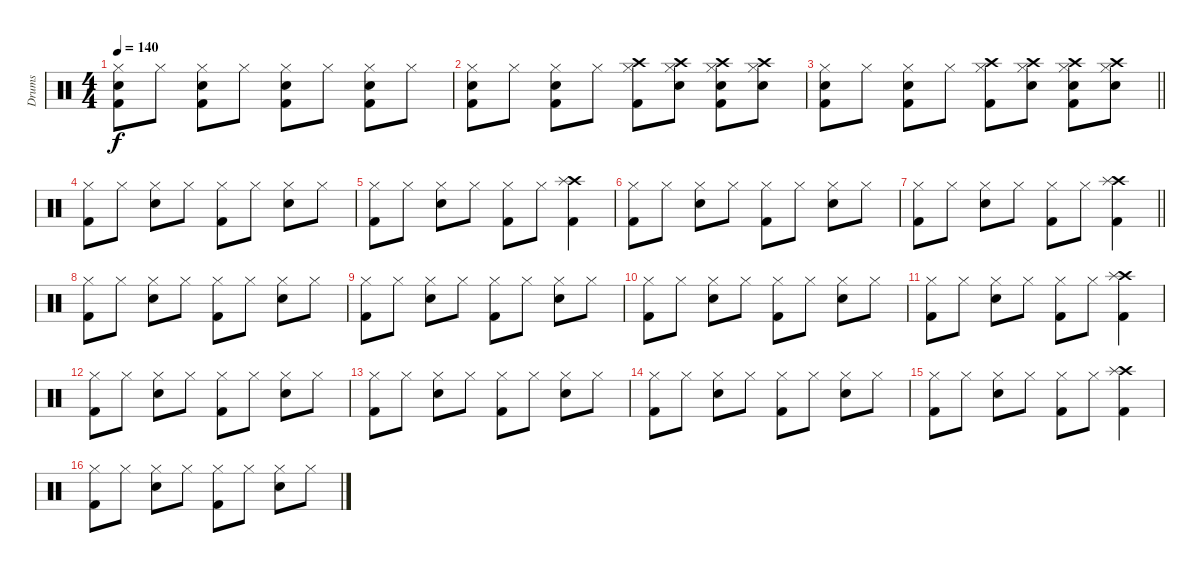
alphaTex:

\track ("Drums" "Drums") {instrument percussion}
\staff {score}
\articulation defaults
\ts (4 4)
\tempo 140
\clef neutral
\ks c
("Hi-Hat (closed)" "Electric Snare (hit)" "Kick (hit) 2").8{dy f} "Hi-Hat (closed)".8 ("Hi-Hat (closed)" "Electric Snare (hit)" "Kick (hit) 2").8 "Hi-Hat (closed)".8 ("Hi-Hat (closed)" "Electric Snare (hit)" "Kick (hit) 2").8 "Hi-Hat (closed)".8 ("Hi-Hat (closed)" "Electric Snare (hit)" "Kick (hit) 2").8 "Hi-Hat (closed)".8 |
("Hi-Hat (closed)" "Electric Snare (hit)" "Kick (hit) 2").8 "Hi-Hat (closed)".8 ("Hi-Hat (closed)" "Electric Snare (hit)" "Kick (hit) 2").8 "Hi-Hat (closed)".8 ("Hi-Hat (closed)" "Crash high (hit)" "Kick (hit) 2").8 ("Hi-Hat (closed)" "Crash high (hit)" "Electric Snare (hit)").8 ("Hi-Hat (closed)" "Crash high (hit)" "Electric Snare (hit)" "Kick (hit) 2").8 ("Hi-Hat (closed)" "Crash high (hit)" "Electric Snare (hit)").8 |
\barLineRight lightlight
("Hi-Hat (closed)" "Electric Snare (hit)" "Kick (hit) 2").8 "Hi-Hat (closed)".8 ("Hi-Hat (closed)" "Electric Snare (hit)" "Kick (hit) 2").8 "Hi-Hat (closed)".8 ("Hi-Hat (closed)" "Crash high (hit)" "Kick (hit) 2").8 ("Hi-Hat (closed)" "Crash high (hit)" "Electric Snare (hit)").8 ("Hi-Hat (closed)" "Crash high (hit)" "Electric Snare (hit)" "Kick (hit) 2").8 ("Hi-Hat (closed)" "Crash high (hit)" "Electric Snare (hit)").8 |
("Hi-Hat (closed)" "Kick (hit) 2").8 "Hi-Hat (closed)".8 ("Hi-Hat (closed)" "Snare (hit) 2").8 "Hi-Hat (closed)".8 ("Hi-Hat (closed)" "Kick (hit) 2").8 "Hi-Hat (closed)".8 ("Hi-Hat (closed)" "Snare (hit) 2").8 "Hi-Hat (closed)".8 |
("Hi-Hat (closed)" "Kick (hit) 2").8 "Hi-Hat (closed)".8 ("Hi-Hat (closed)" "Snare (hit) 2").8 "Hi-Hat (closed)".8 ("Hi-Hat (closed)" "Kick (hit) 2").8 "Hi-Hat (closed)".8 ("Crash high (hit)" "Splash (hit)" "Kick (hit) 2").4 |
("Hi-Hat (closed)" "Kick (hit) 2").8 "Hi-Hat (closed)".8 ("Hi-Hat (closed)" "Snare (hit) 2").8 "Hi-Hat (closed)".8 ("Hi-Hat (closed)" "Kick (hit) 2").8 "Hi-Hat (closed)".8 ("Hi-Hat (closed)" "Snare (hit) 2").8 "Hi-Hat (closed)".8 |
\barLineRight lightlight
("Hi-Hat (closed)" "Kick (hit) 2").8 "Hi-Hat (closed)".8 ("Hi-Hat (closed)" "Snare (hit) 2").8 "Hi-Hat (closed)".8 ("Hi-Hat (closed)" "Kick (hit) 2").8 "Hi-Hat (closed)".8 ("Crash high (hit)" "Splash (hit)" "Kick (hit) 2").4 |
("Hi-Hat (closed)" "Kick (hit) 2").8 "Hi-Hat (closed)".8 ("Hi-Hat (closed)" "Snare (hit) 2").8 "Hi-Hat (closed)".8 ("Hi-Hat (closed)" "Kick (hit) 2").8 "Hi-Hat (closed)".8 ("Hi-Hat (closed)" "Snare (hit) 2").8 "Hi-Hat (closed)".8 |
("Hi-Hat (closed)" "Kick (hit) 2").8 "Hi-Hat (closed)".8 ("Hi-Hat (closed)" "Snare (hit) 2").8 "Hi-Hat (closed)".8 ("Hi-Hat (closed)" "Kick (hit) 2").8 "Hi-Hat (closed)".8 ("Hi-Hat (closed)" "Snare (hit) 2").8 "Hi-Hat (closed)".8 |
("Hi-Hat (closed)" "Kick (hit) 2").8 "Hi-Hat (closed)".8 ("Hi-Hat (closed)" "Snare (hit) 2").8 "Hi-Hat (closed)".8 ("Hi-Hat (closed)" "Kick (hit) 2").8 "Hi-Hat (closed)".8 ("Hi-Hat (closed)" "Snare (hit) 2").8 "Hi-Hat (closed)".8 |
("Hi-Hat (closed)" "Kick (hit) 2").8 "Hi-Hat (closed)".8 ("Hi-Hat (closed)" "Snare (hit) 2").8 "Hi-Hat (closed)".8 ("Hi-Hat (closed)" "Kick (hit) 2").8 "Hi-Hat (closed)".8 ("Crash high (hit)" "Splash (hit)" "Kick (hit) 2").4 |
("Hi-Hat (closed)" "Kick (hit) 2").8 "Hi-Hat (closed)".8 ("Hi-Hat (closed)" "Snare (hit) 2").8 "Hi-Hat (closed)".8 ("Hi-Hat (closed)" "Kick (hit) 2").8 "Hi-Hat (closed)".8 ("Hi-Hat (closed)" "Snare (hit) 2").8 "Hi-Hat (closed)".8 |
("Hi-Hat (closed)" "Kick (hit) 2").8 "Hi-Hat (closed)".8 ("Hi-Hat (closed)" "Snare (hit) 2").8 "Hi-Hat (closed)".8 ("Hi-Hat (closed)" "Kick (hit) 2").8 "Hi-Hat (closed)".8 ("Hi-Hat (closed)" "Snare (hit) 2").8 "Hi-Hat (closed)".8 |
("Hi-Hat (closed)" "Kick (hit) 2").8 "Hi-Hat (closed)".8 ("Hi-Hat (closed)" "Snare (hit) 2").8 "Hi-Hat (closed)".8 ("Hi-Hat (closed)" "Kick (hit) 2").8 "Hi-Hat (closed)".8 ("Hi-Hat (closed)" "Snare (hit) 2").8 "Hi-Hat (closed)".8 |
("Hi-Hat (closed)" "Kick (hit) 2").8 "Hi-Hat (closed)".8 ("Hi-Hat (closed)" "Snare (hit) 2").8 "Hi-Hat (closed)".8 ("Hi-Hat (closed)" "Kick (hit) 2").8 "Hi-Hat (closed)".8 ("Crash high (hit)" "Splash (hit)" "Kick (hit) 2").4 |
("Hi-Hat (closed)" "Kick (hit) 2").8 "Hi-Hat (closed)".8 ("Hi-Hat (closed)" "Snare (hit) 2").8 "Hi-Hat (closed)".8 ("Hi-Hat (closed)" "Kick (hit) 2").8 "Hi-Hat (closed)".8 ("Hi-Hat (closed)" "Snare (hit) 2").8 "Hi-Hat (closed)".8
